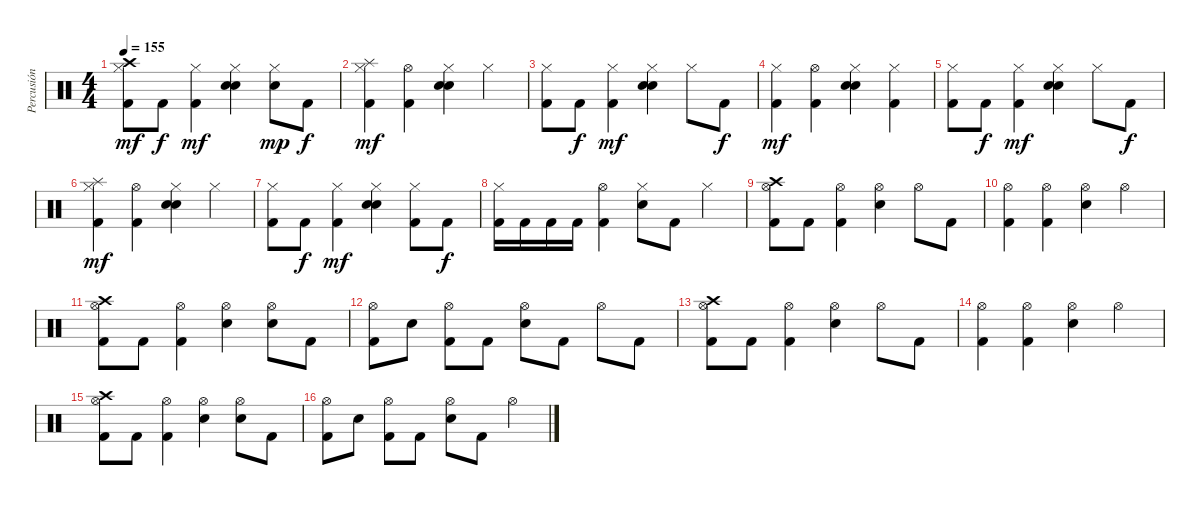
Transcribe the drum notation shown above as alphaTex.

\track ("Percusión" "Percusión") {instrument percussion}
\staff {score}
\articulation defaults
\ts (4 4)
\tempo 155
\clef neutral
\ks c
("Crash high (hit)" "Hi-Hat (closed)" "Kick (hit) 2").8{dy mf} "Kick (hit) 2".8{dy f} ("Hi-Hat (closed)" "Kick (hit) 2").4{dy mf} ("Hi-Hat (closed)" "Electric Snare (hit)" "Hand Clap (hit)").4 ("Hi-Hat (closed)" "Electric Snare (hit)").8{dy mp} "Kick (hit) 2".8{dy f} |
("Splash (hit)" "Hi-Hat (closed)" "Kick (hit) 2").4{dy mf} ("Hi-Hat (open)" "Kick (hit) 2").4 ("Hi-Hat (closed)" "Electric Snare (hit)" "Hand Clap (hit)").4 "Hi-Hat (closed)".4 |
("Hi-Hat (closed)" "Kick (hit) 2").8 "Kick (hit) 2".8{dy f} ("Hi-Hat (closed)" "Kick (hit) 2").4{dy mf} ("Hi-Hat (closed)" "Electric Snare (hit)" "Hand Clap (hit)").4 "Hi-Hat (closed)".8 "Kick (hit) 2".8{dy f} |
("Hi-Hat (closed)" "Kick (hit) 2").4{dy mf} ("Hi-Hat (open)" "Kick (hit) 2").4 ("Hi-Hat (closed)" "Electric Snare (hit)" "Hand Clap (hit)").4 ("Hi-Hat (closed)" "Kick (hit) 2").4 |
("Hi-Hat (closed)" "Kick (hit) 2").8 "Kick (hit) 2".8{dy f} ("Hi-Hat (closed)" "Kick (hit) 2").4{dy mf} ("Hi-Hat (closed)" "Electric Snare (hit)" "Hand Clap (hit)").4 "Hi-Hat (closed)".8 "Kick (hit) 2".8{dy f} |
("Splash (hit)" "Hi-Hat (closed)" "Kick (hit) 2").4{dy mf} ("Hi-Hat (open)" "Kick (hit) 2").4 ("Hi-Hat (closed)" "Electric Snare (hit)" "Hand Clap (hit)").4 "Hi-Hat (closed)".4 |
("Hi-Hat (closed)" "Kick (hit) 2").8 "Kick (hit) 2".8{dy f} ("Hi-Hat (closed)" "Kick (hit) 2").4{dy mf} ("Hi-Hat (closed)" "Electric Snare (hit)" "Hand Clap (hit)").4 ("Hi-Hat (closed)" "Kick (hit) 2").8 "Kick (hit) 2".8{dy f} |
("Hi-Hat (closed)" "Kick (hit) 2").16 "Kick (hit) 2".16 "Kick (hit) 2".16 "Kick (hit) 2".16 ("Hi-Hat (open)" "Kick (hit) 2").4 ("Hi-Hat (closed)" "Electric Snare (hit)").8 "Kick (hit) 2".8 "Hi-Hat (closed)".4 |
("Crash high (hit)" "Hi-Hat (open)" "Kick (hit) 2").8 "Kick (hit) 2".8 ("Hi-Hat (open)" "Kick (hit) 2").4 ("Hi-Hat (open)" "Snare (hit) 2").4 "Hi-Hat (open)".8 "Kick (hit) 2".8 |
("Hi-Hat (open)" "Kick (hit) 2").4 ("Hi-Hat (open)" "Kick (hit) 2").4 ("Hi-Hat (open)" "Snare (hit) 2").4 "Hi-Hat (open)".4 |
("Crash high (hit)" "Hi-Hat (open)" "Kick (hit) 2").8 "Kick (hit) 2".8 ("Hi-Hat (open)" "Kick (hit) 2").4 ("Hi-Hat (open)" "Snare (hit) 2").4 ("Hi-Hat (open)" "Snare (hit) 2").8 "Kick (hit) 2".8 |
("Hi-Hat (open)" "Kick (hit) 2").8 "Snare (hit) 2".8 ("Hi-Hat (open)" "Kick (hit) 2").8 "Kick (hit) 2".8 ("Hi-Hat (open)" "Snare (hit) 2").8 "Kick (hit) 2".8 "Hi-Hat (open)".8 "Kick (hit) 2".8 |
("Crash high (hit)" "Hi-Hat (open)" "Kick (hit) 2").8 "Kick (hit) 2".8 ("Hi-Hat (open)" "Kick (hit) 2").4 ("Hi-Hat (open)" "Snare (hit) 2").4 "Hi-Hat (open)".8 "Kick (hit) 2".8 |
("Hi-Hat (open)" "Kick (hit) 2").4 ("Hi-Hat (open)" "Kick (hit) 2").4 ("Hi-Hat (open)" "Snare (hit) 2").4 "Hi-Hat (open)".4 |
("Crash high (hit)" "Hi-Hat (open)" "Kick (hit) 2").8 "Kick (hit) 2".8 ("Hi-Hat (open)" "Kick (hit) 2").4 ("Hi-Hat (open)" "Snare (hit) 2").4 ("Hi-Hat (open)" "Snare (hit) 2").8 "Kick (hit) 2".8 |
("Hi-Hat (open)" "Kick (hit) 2").8 "Snare (hit) 2".8 ("Hi-Hat (open)" "Kick (hit) 2").8 "Kick (hit) 2".8 ("Hi-Hat (open)" "Snare (hit) 2").8 "Kick (hit) 2".8 "Hi-Hat (open)".4
